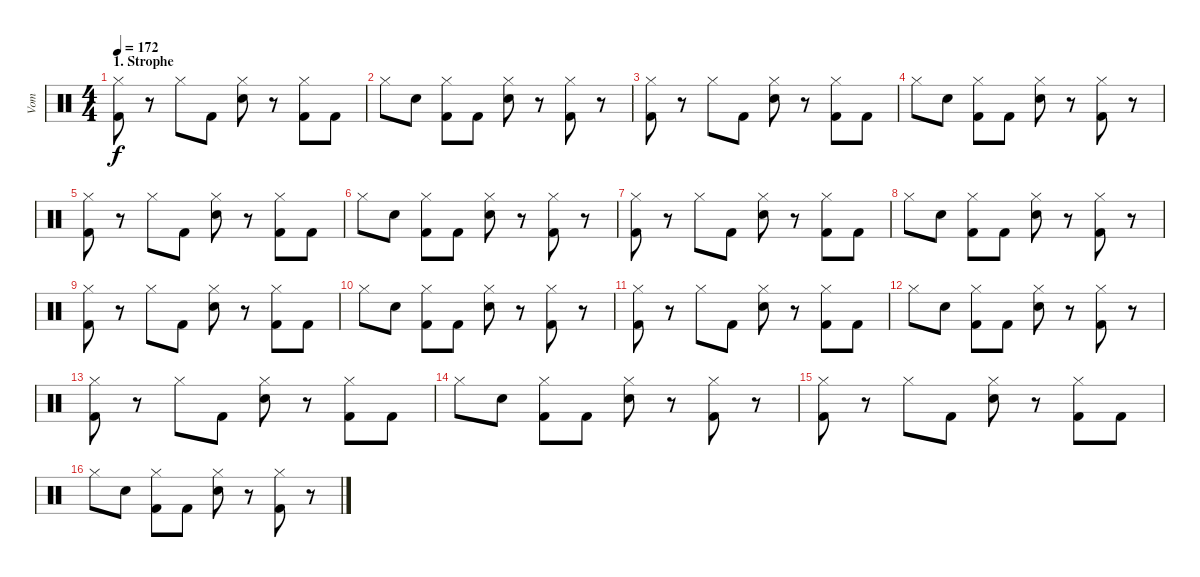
\track ("Vom" "Vom") {instrument percussion}
\staff {score}
\articulation defaults
\ts (4 4)
\section ("" "1. Strophe")
\tempo 172
\clef neutral
\ks c
("Hi-Hat (closed)" "Kick (hit) 2").8{dy f} r.8 "Hi-Hat (closed)".8 "Kick (hit) 2".8 ("Hi-Hat (closed)" "Snare (hit) 2").8 r.8 ("Hi-Hat (closed)" "Kick (hit) 2").8 "Kick (hit) 2".8 |
"Hi-Hat (closed)".8 "Snare (hit) 2".8 ("Hi-Hat (closed)" "Kick (hit) 2").8 "Kick (hit) 2".8 ("Hi-Hat (closed)" "Snare (hit) 2").8 r.8 ("Hi-Hat (closed)" "Kick (hit) 2").8 r.8 |
("Hi-Hat (closed)" "Kick (hit) 2").8 r.8 "Hi-Hat (closed)".8 "Kick (hit) 2".8 ("Hi-Hat (closed)" "Snare (hit) 2").8 r.8 ("Hi-Hat (closed)" "Kick (hit) 2").8 "Kick (hit) 2".8 |
"Hi-Hat (closed)".8 "Snare (hit) 2".8 ("Hi-Hat (closed)" "Kick (hit) 2").8 "Kick (hit) 2".8 ("Hi-Hat (closed)" "Snare (hit) 2").8 r.8 ("Hi-Hat (closed)" "Kick (hit) 2").8 r.8 |
("Hi-Hat (closed)" "Kick (hit) 2").8 r.8 "Hi-Hat (closed)".8 "Kick (hit) 2".8 ("Hi-Hat (closed)" "Snare (hit) 2").8 r.8 ("Hi-Hat (closed)" "Kick (hit) 2").8 "Kick (hit) 2".8 |
"Hi-Hat (closed)".8 "Snare (hit) 2".8 ("Hi-Hat (closed)" "Kick (hit) 2").8 "Kick (hit) 2".8 ("Hi-Hat (closed)" "Snare (hit) 2").8 r.8 ("Hi-Hat (closed)" "Kick (hit) 2").8 r.8 |
("Hi-Hat (closed)" "Kick (hit) 2").8 r.8 "Hi-Hat (closed)".8 "Kick (hit) 2".8 ("Hi-Hat (closed)" "Snare (hit) 2").8 r.8 ("Hi-Hat (closed)" "Kick (hit) 2").8 "Kick (hit) 2".8 |
"Hi-Hat (closed)".8 "Snare (hit) 2".8 ("Hi-Hat (closed)" "Kick (hit) 2").8 "Kick (hit) 2".8 ("Hi-Hat (closed)" "Snare (hit) 2").8 r.8 ("Hi-Hat (closed)" "Kick (hit) 2").8 r.8 |
("Hi-Hat (closed)" "Kick (hit) 2").8 r.8 "Hi-Hat (closed)".8 "Kick (hit) 2".8 ("Hi-Hat (closed)" "Snare (hit) 2").8 r.8 ("Hi-Hat (closed)" "Kick (hit) 2").8 "Kick (hit) 2".8 |
"Hi-Hat (closed)".8 "Snare (hit) 2".8 ("Hi-Hat (closed)" "Kick (hit) 2").8 "Kick (hit) 2".8 ("Hi-Hat (closed)" "Snare (hit) 2").8 r.8 ("Hi-Hat (closed)" "Kick (hit) 2").8 r.8 |
("Hi-Hat (closed)" "Kick (hit) 2").8 r.8 "Hi-Hat (closed)".8 "Kick (hit) 2".8 ("Hi-Hat (closed)" "Snare (hit) 2").8 r.8 ("Hi-Hat (closed)" "Kick (hit) 2").8 "Kick (hit) 2".8 |
"Hi-Hat (closed)".8 "Snare (hit) 2".8 ("Hi-Hat (closed)" "Kick (hit) 2").8 "Kick (hit) 2".8 ("Hi-Hat (closed)" "Snare (hit) 2").8 r.8 ("Hi-Hat (closed)" "Kick (hit) 2").8 r.8 |
("Hi-Hat (closed)" "Kick (hit) 2").8 r.8 "Hi-Hat (closed)".8 "Kick (hit) 2".8 ("Hi-Hat (closed)" "Snare (hit) 2").8 r.8 ("Hi-Hat (closed)" "Kick (hit) 2").8 "Kick (hit) 2".8 |
"Hi-Hat (closed)".8 "Snare (hit) 2".8 ("Hi-Hat (closed)" "Kick (hit) 2").8 "Kick (hit) 2".8 ("Hi-Hat (closed)" "Snare (hit) 2").8 r.8 ("Hi-Hat (closed)" "Kick (hit) 2").8 r.8 |
("Hi-Hat (closed)" "Kick (hit) 2").8 r.8 "Hi-Hat (closed)".8 "Kick (hit) 2".8 ("Hi-Hat (closed)" "Snare (hit) 2").8 r.8 ("Hi-Hat (closed)" "Kick (hit) 2").8 "Kick (hit) 2".8 |
"Hi-Hat (closed)".8 "Snare (hit) 2".8 ("Hi-Hat (closed)" "Kick (hit) 2").8 "Kick (hit) 2".8 ("Hi-Hat (closed)" "Snare (hit) 2").8 r.8 ("Hi-Hat (closed)" "Kick (hit) 2").8 r.8
